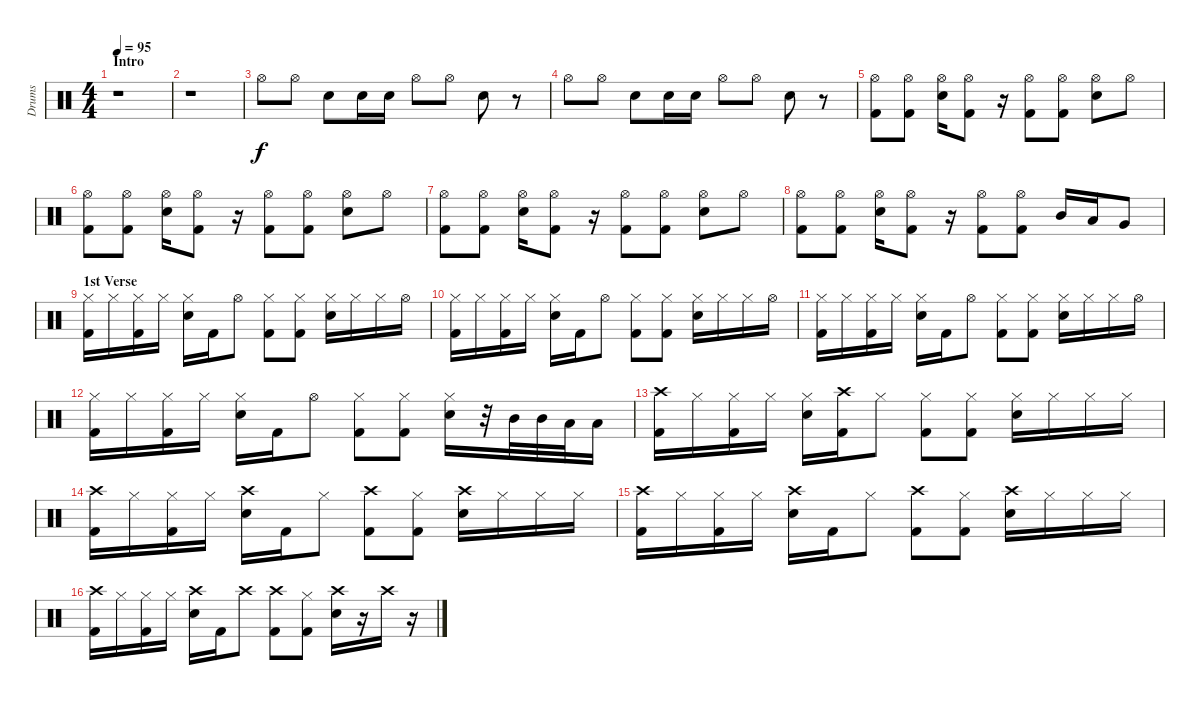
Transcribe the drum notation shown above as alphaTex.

\track ("Drums" "Drums") {instrument percussion}
\staff {score}
\articulation defaults
\ts (4 4)
\section ("" "Intro")
\tempo 95
\clef neutral
\ks c
r.1{dy f} |
r.1 |
"Hi-Hat (open)".8 "Hi-Hat (open)".8 "Hand Clap (hit)".8 "Hand Clap (hit)".16 "Hand Clap (hit)".16 "Hi-Hat (open)".8 "Hi-Hat (open)".8 "Hand Clap (hit)".8 r.8 |
"Hi-Hat (open)".8 "Hi-Hat (open)".8 "Hand Clap (hit)".8 "Hand Clap (hit)".16 "Hand Clap (hit)".16 "Hi-Hat (open)".8 "Hi-Hat (open)".8 "Hand Clap (hit)".8 r.8 |
("Hi-Hat (open)" "Kick (hit) 2").8 ("Hi-Hat (open)" "Kick (hit) 2").8 ("Hi-Hat (open)" "Electric Snare (hit)").16 ("Hi-Hat (open)" "Kick (hit) 2").8 r.16 ("Hi-Hat (open)" "Kick (hit) 2").8 ("Hi-Hat (open)" "Kick (hit) 2").8 ("Hi-Hat (open)" "Electric Snare (hit)").8 "Hi-Hat (open)".8 |
("Hi-Hat (open)" "Kick (hit) 2").8 ("Hi-Hat (open)" "Kick (hit) 2").8 ("Hi-Hat (open)" "Electric Snare (hit)").16 ("Hi-Hat (open)" "Kick (hit) 2").8 r.16 ("Hi-Hat (open)" "Kick (hit) 2").8 ("Hi-Hat (open)" "Kick (hit) 2").8 ("Hi-Hat (open)" "Electric Snare (hit)").8 "Hi-Hat (open)".8 |
("Hi-Hat (open)" "Kick (hit) 2").8 ("Hi-Hat (open)" "Kick (hit) 2").8 ("Hi-Hat (open)" "Electric Snare (hit)").16 ("Hi-Hat (open)" "Kick (hit) 2").8 r.16 ("Hi-Hat (open)" "Kick (hit) 2").8 ("Hi-Hat (open)" "Kick (hit) 2").8 ("Hi-Hat (open)" "Electric Snare (hit)").8 "Hi-Hat (open)".8 |
("Hi-Hat (open)" "Kick (hit) 2").8 ("Hi-Hat (open)" "Kick (hit) 2").8 ("Hi-Hat (open)" "Electric Snare (hit)").16 ("Hi-Hat (open)" "Kick (hit) 2").8 r.16 ("Hi-Hat (open)" "Kick (hit) 2").8 ("Hi-Hat (open)" "Kick (hit) 2").8 "Mid Tom (hit)".16 "Low Tom (hit)".16 "Very Low Tom (hit)".8 |
\section ("" "1st Verse")
("Hi-Hat (closed)" "Kick (hit) 2").16 "Hi-Hat (closed)".16 ("Hi-Hat (closed)" "Kick (hit) 2").16 "Hi-Hat (closed)".16 ("Hi-Hat (closed)" "Electric Snare (hit)").16 "Kick (hit) 2".16 "Hi-Hat (open)".8 ("Hi-Hat (closed)" "Kick (hit) 2").8 ("Hi-Hat (closed)" "Kick (hit) 2").8 ("Hi-Hat (closed)" "Electric Snare (hit)").16 "Hi-Hat (closed)".16 "Hi-Hat (closed)".16 "Hi-Hat (open)".16 |
("Hi-Hat (closed)" "Kick (hit) 2").16 "Hi-Hat (closed)".16 ("Hi-Hat (closed)" "Kick (hit) 2").16 "Hi-Hat (closed)".16 ("Hi-Hat (closed)" "Electric Snare (hit)").16 "Kick (hit) 2".16 "Hi-Hat (open)".8 ("Hi-Hat (closed)" "Kick (hit) 2").8 ("Hi-Hat (closed)" "Kick (hit) 2").8 ("Hi-Hat (closed)" "Electric Snare (hit)").16 "Hi-Hat (closed)".16 "Hi-Hat (closed)".16 "Hi-Hat (open)".16 |
("Hi-Hat (closed)" "Kick (hit) 2").16 "Hi-Hat (closed)".16 ("Hi-Hat (closed)" "Kick (hit) 2").16 "Hi-Hat (closed)".16 ("Hi-Hat (closed)" "Electric Snare (hit)").16 "Kick (hit) 2".16 "Hi-Hat (open)".8 ("Hi-Hat (closed)" "Kick (hit) 2").8 ("Hi-Hat (closed)" "Kick (hit) 2").8 ("Hi-Hat (closed)" "Electric Snare (hit)").16 "Hi-Hat (closed)".16 "Hi-Hat (closed)".16 "Hi-Hat (open)".16 |
("Hi-Hat (closed)" "Kick (hit) 2").16 "Hi-Hat (closed)".16 ("Hi-Hat (closed)" "Kick (hit) 2").16 "Hi-Hat (closed)".16 ("Hi-Hat (closed)" "Electric Snare (hit)").16 "Kick (hit) 2".16 "Hi-Hat (open)".8 ("Hi-Hat (closed)" "Kick (hit) 2").8 ("Hi-Hat (closed)" "Kick (hit) 2").8 ("Hi-Hat (closed)" "Electric Snare (hit)").16 r.32 "Mid Tom (hit)".32 "Mid Tom (hit)".32 "Low Tom (hit)".32 "Low Tom (hit)".16 |
("Crash high (hit)" "Kick (hit) 2").16 "Hi-Hat (closed)".16 ("Hi-Hat (closed)" "Kick (hit) 2").16 "Hi-Hat (closed)".16 ("Hi-Hat (closed)" "Electric Snare (hit)").16 ("Crash high (hit)" "Kick (hit) 2").16 "Hi-Hat (closed)".8 ("Hi-Hat (closed)" "Kick (hit) 2").8 ("Hi-Hat (closed)" "Kick (hit) 2").8 ("Hi-Hat (closed)" "Electric Snare (hit)").16 "Hi-Hat (closed)".16 "Hi-Hat (closed)".16 "Hi-Hat (closed)".16 |
("Crash high (hit)" "Kick (hit) 2").16 "Hi-Hat (closed)".16 ("Hi-Hat (closed)" "Kick (hit) 2").16 "Hi-Hat (closed)".16 ("Crash high (hit)" "Electric Snare (hit)").16 "Kick (hit) 2".16 "Hi-Hat (closed)".8 ("Crash high (hit)" "Kick (hit) 2").8 ("Hi-Hat (closed)" "Kick (hit) 2").8 ("Crash high (hit)" "Electric Snare (hit)").16 "Hi-Hat (closed)".16 "Hi-Hat (closed)".16 "Hi-Hat (closed)".16 |
("Crash high (hit)" "Kick (hit) 2").16 "Hi-Hat (closed)".16 ("Hi-Hat (closed)" "Kick (hit) 2").16 "Hi-Hat (closed)".16 ("Crash high (hit)" "Electric Snare (hit)").16 "Kick (hit) 2".16 "Hi-Hat (closed)".8 ("Crash high (hit)" "Kick (hit) 2").8 ("Hi-Hat (closed)" "Kick (hit) 2").8 ("Crash high (hit)" "Electric Snare (hit)").16 "Hi-Hat (closed)".16 "Hi-Hat (closed)".16 "Hi-Hat (closed)".16 |
("Crash high (hit)" "Kick (hit) 2").16 "Hi-Hat (closed)".16 ("Hi-Hat (closed)" "Kick (hit) 2").16 "Hi-Hat (closed)".16 ("Crash high (hit)" "Electric Snare (hit)").16 "Kick (hit) 2".16 "Crash high (hit)".8 ("Crash high (hit)" "Kick (hit) 2").8 ("Hi-Hat (closed)" "Kick (hit) 2").8 ("Crash high (hit)" "Electric Snare (hit)").16 r.16 "Crash high (hit)".16 r.16
